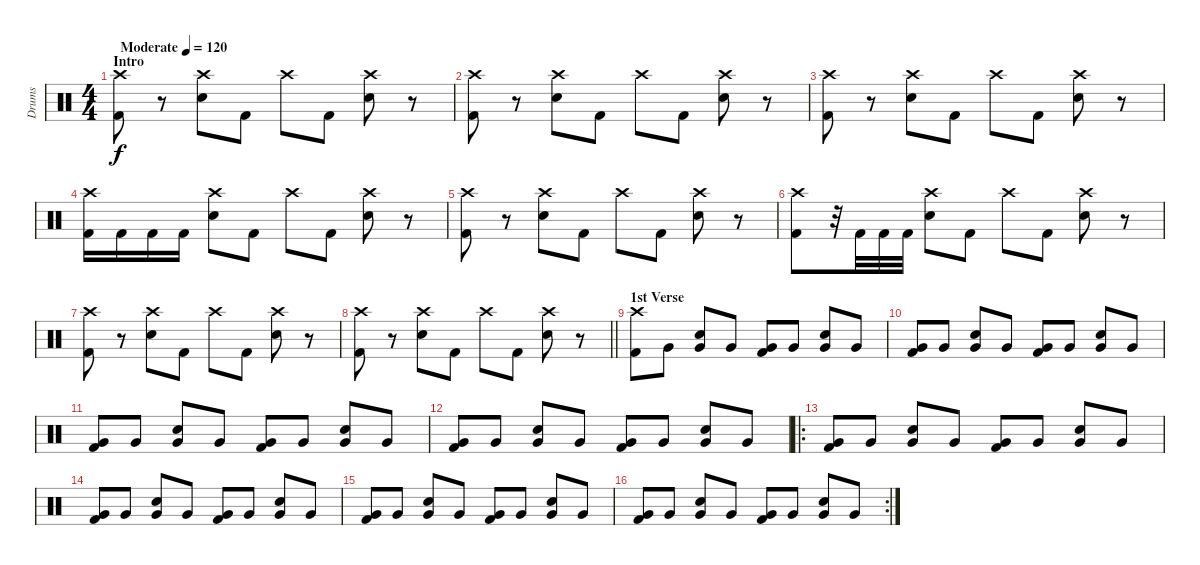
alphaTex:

\track ("Drums" "Drums") {instrument percussion}
\staff {score}
\articulation defaults
\ts (4 4)
\section ("" "Intro")
\tempo (120 "Moderate")
\clef neutral
\ks c
("Crash high (hit)" "Kick (hit) 2").8{dy f} r.8 ("Crash high (hit)" "Snare (hit) 2").8 "Kick (hit) 2".8 "Crash high (hit)".8 "Kick (hit) 2".8 ("Crash high (hit)" "Snare (hit) 2").8 r.8 |
("Crash high (hit)" "Kick (hit) 2").8 r.8 ("Crash high (hit)" "Snare (hit) 2").8 "Kick (hit) 2".8 "Crash high (hit)".8 "Kick (hit) 2".8 ("Crash high (hit)" "Snare (hit) 2").8 r.8 |
("Crash high (hit)" "Kick (hit) 2").8 r.8 ("Crash high (hit)" "Snare (hit) 2").8 "Kick (hit) 2".8 "Crash high (hit)".8 "Kick (hit) 2".8 ("Crash high (hit)" "Snare (hit) 2").8 r.8 |
("Crash high (hit)" "Kick (hit) 2").16 "Kick (hit) 2".16 "Kick (hit) 2".16 "Kick (hit) 2".16 ("Crash high (hit)" "Snare (hit) 2").8 "Kick (hit) 2".8 "Crash high (hit)".8 "Kick (hit) 2".8 ("Crash high (hit)" "Snare (hit) 2").8 r.8 |
("Crash high (hit)" "Kick (hit) 2").8 r.8 ("Crash high (hit)" "Snare (hit) 2").8 "Kick (hit) 2".8 "Crash high (hit)".8 "Kick (hit) 2".8 ("Crash high (hit)" "Snare (hit) 2").8 r.8 |
("Crash high (hit)" "Kick (hit) 2").8 r.32 "Kick (hit) 2".32 "Kick (hit) 2".32 "Kick (hit) 2".32 ("Crash high (hit)" "Snare (hit) 2").8 "Kick (hit) 2".8 "Crash high (hit)".8 "Kick (hit) 2".8 ("Crash high (hit)" "Snare (hit) 2").8 r.8 |
("Crash high (hit)" "Kick (hit) 2").8 r.8 ("Crash high (hit)" "Snare (hit) 2").8 "Kick (hit) 2".8 "Crash high (hit)".8 "Kick (hit) 2".8 ("Crash high (hit)" "Snare (hit) 2").8 r.8 |
\barLineRight lightlight
("Crash high (hit)" "Kick (hit) 2").8 r.8 ("Crash high (hit)" "Snare (hit) 2").8 "Kick (hit) 2".8 "Crash high (hit)".8 "Kick (hit) 2".8 ("Crash high (hit)" "Snare (hit) 2").8 r.8 |
\section ("" "1st Verse")
("Crash high (hit)" "Kick (hit) 2").8 "Very Low Tom (hit)".8 ("Snare (hit) 2" "Very Low Tom (hit)").8 "Very Low Tom (hit)".8 ("Very Low Tom (hit)" "Kick (hit) 2").8 "Very Low Tom (hit)".8 ("Snare (hit) 2" "Very Low Tom (hit)").8 "Very Low Tom (hit)".8 |
("Very Low Tom (hit)" "Kick (hit) 2").8 "Very Low Tom (hit)".8 ("Snare (hit) 2" "Very Low Tom (hit)").8 "Very Low Tom (hit)".8 ("Very Low Tom (hit)" "Kick (hit) 2").8 "Very Low Tom (hit)".8 ("Snare (hit) 2" "Very Low Tom (hit)").8 "Very Low Tom (hit)".8 |
("Very Low Tom (hit)" "Kick (hit) 2").8 "Very Low Tom (hit)".8 ("Snare (hit) 2" "Very Low Tom (hit)").8 "Very Low Tom (hit)".8 ("Very Low Tom (hit)" "Kick (hit) 2").8 "Very Low Tom (hit)".8 ("Snare (hit) 2" "Very Low Tom (hit)").8 "Very Low Tom (hit)".8 |
("Very Low Tom (hit)" "Kick (hit) 2").8 "Very Low Tom (hit)".8 ("Snare (hit) 2" "Very Low Tom (hit)").8 "Very Low Tom (hit)".8 ("Very Low Tom (hit)" "Kick (hit) 2").8 "Very Low Tom (hit)".8 ("Snare (hit) 2" "Very Low Tom (hit)").8 "Very Low Tom (hit)".8 |
\ro
("Very Low Tom (hit)" "Kick (hit) 2").8 "Very Low Tom (hit)".8 ("Snare (hit) 2" "Very Low Tom (hit)").8 "Very Low Tom (hit)".8 ("Very Low Tom (hit)" "Kick (hit) 2").8 "Very Low Tom (hit)".8 ("Snare (hit) 2" "Very Low Tom (hit)").8 "Very Low Tom (hit)".8 |
("Very Low Tom (hit)" "Kick (hit) 2").8 "Very Low Tom (hit)".8 ("Snare (hit) 2" "Very Low Tom (hit)").8 "Very Low Tom (hit)".8 ("Very Low Tom (hit)" "Kick (hit) 2").8 "Very Low Tom (hit)".8 ("Snare (hit) 2" "Very Low Tom (hit)").8 "Very Low Tom (hit)".8 |
("Very Low Tom (hit)" "Kick (hit) 2").8 "Very Low Tom (hit)".8 ("Snare (hit) 2" "Very Low Tom (hit)").8 "Very Low Tom (hit)".8 ("Very Low Tom (hit)" "Kick (hit) 2").8 "Very Low Tom (hit)".8 ("Snare (hit) 2" "Very Low Tom (hit)").8 "Very Low Tom (hit)".8 |
\rc 2
("Very Low Tom (hit)" "Kick (hit) 2").8 "Very Low Tom (hit)".8 ("Snare (hit) 2" "Very Low Tom (hit)").8 "Very Low Tom (hit)".8 ("Very Low Tom (hit)" "Kick (hit) 2").8 "Very Low Tom (hit)".8 ("Snare (hit) 2" "Very Low Tom (hit)").8 "Very Low Tom (hit)".8
